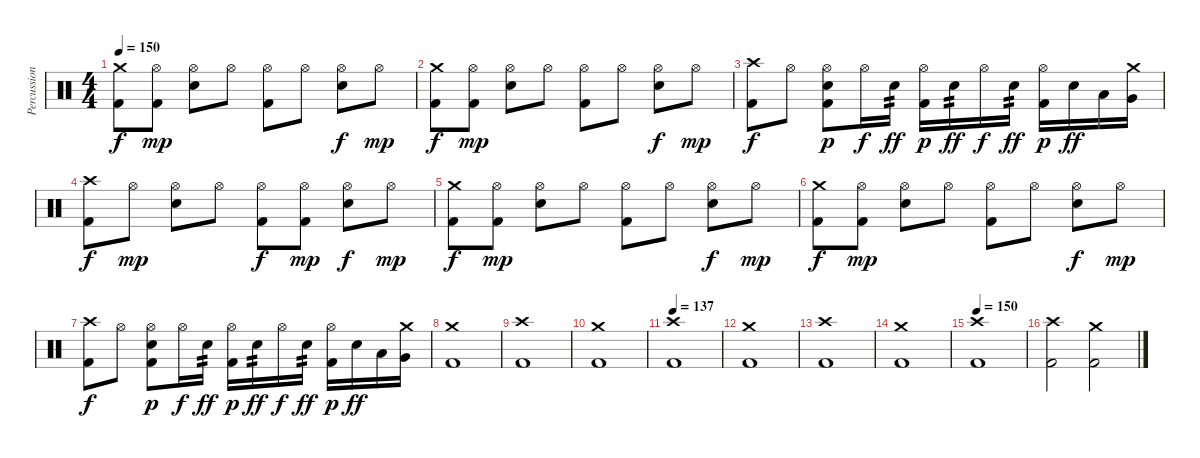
\track ("Percussion" "Percussion") {instrument percussion}
\staff {score}
\articulation defaults
\ts (4 4)
\tempo 150
\clef neutral
\ks c
("Crash medium (hit)" "Kick (hit) 2").8{dy f} ("Hi-Hat (open)" "Kick (hit) 2").8{dy mp} ("Snare (hit) 2" "Hi-Hat (open)").8 "Hi-Hat (open)".8 ("Hi-Hat (open)" "Kick (hit) 2").8 "Hi-Hat (open)".8 ("Hi-Hat (open)" "Electric Snare (hit)").8{dy f} "Hi-Hat (open)".8{dy mp} |
("Crash medium (hit)" "Kick (hit) 2").8{dy f} ("Hi-Hat (open)" "Kick (hit) 2").8{dy mp} ("Snare (hit) 2" "Hi-Hat (open)").8 "Hi-Hat (open)".8 ("Hi-Hat (open)" "Kick (hit) 2").8 "Hi-Hat (open)".8 ("Hi-Hat (open)" "Electric Snare (hit)").8{dy f} "Hi-Hat (open)".8{dy mp} |
("Crash high (hit)" "Kick (hit) 2").8{dy f} "Hi-Hat (open)".8 ("Hi-Hat (open)" "Electric Snare (hit)" "Kick (hit) 2").8{dy p} "Hi-Hat (open)".16{dy f} "Electric Snare (hit)".16{tp 2 dy ff} ("Hi-Hat (open)" "Kick (hit) 2").16{dy p} "Electric Snare (hit)".16{tp 2 dy ff} "Hi-Hat (open)".16{dy f} "Electric Snare (hit)".16{tp 2 dy ff} ("Hi-Hat (open)" "Kick (hit) 2").16{dy p} "Electric Snare (hit)".16{dy ff} "Low Tom (hit)".16 ("Crash medium (hit)" "Very Low Tom (hit)").16 |
("Crash high (hit)" "Kick (hit) 2").8{dy f} "Hi-Hat (open)".8{dy mp} ("Snare (hit) 2" "Hi-Hat (open)").8 "Hi-Hat (open)".8 ("Hi-Hat (open)" "Kick (hit) 2").8{dy f} ("Hi-Hat (open)" "Kick (hit) 2").8{dy mp} ("Hi-Hat (open)" "Electric Snare (hit)").8{dy f} "Hi-Hat (open)".8{dy mp} |
("Crash medium (hit)" "Kick (hit) 2").8{dy f} ("Hi-Hat (open)" "Kick (hit) 2").8{dy mp} ("Snare (hit) 2" "Hi-Hat (open)").8 "Hi-Hat (open)".8 ("Hi-Hat (open)" "Kick (hit) 2").8 "Hi-Hat (open)".8 ("Hi-Hat (open)" "Electric Snare (hit)").8{dy f} "Hi-Hat (open)".8{dy mp} |
("Crash medium (hit)" "Kick (hit) 2").8{dy f} ("Hi-Hat (open)" "Kick (hit) 2").8{dy mp} ("Snare (hit) 2" "Hi-Hat (open)").8 "Hi-Hat (open)".8 ("Hi-Hat (open)" "Kick (hit) 2").8 "Hi-Hat (open)".8 ("Hi-Hat (open)" "Electric Snare (hit)").8{dy f} "Hi-Hat (open)".8{dy mp} |
("Crash high (hit)" "Kick (hit) 2").8{dy f} "Hi-Hat (open)".8 ("Hi-Hat (open)" "Electric Snare (hit)" "Kick (hit) 2").8{dy p} "Hi-Hat (open)".16{dy f} "Electric Snare (hit)".16{tp 2 dy ff} ("Hi-Hat (open)" "Kick (hit) 2").16{dy p} "Electric Snare (hit)".16{tp 2 dy ff} "Hi-Hat (open)".16{dy f} "Electric Snare (hit)".16{tp 2 dy ff} ("Hi-Hat (open)" "Kick (hit) 2").16{dy p} "Electric Snare (hit)".16{dy ff} "Low Tom (hit)".16 ("Crash medium (hit)" "Very Low Tom (hit)").16 |
("Crash medium (hit)" "Kick (hit) 2").1 |
("Crash high (hit)" "Kick (hit) 2").1 |
("Crash medium (hit)" "Kick (hit) 2").1 |
\tempo 137
("Crash high (hit)" "Kick (hit) 2").1 |
("Crash medium (hit)" "Kick (hit) 2").1 |
("Crash high (hit)" "Kick (hit) 2").1 |
("Crash medium (hit)" "Kick (hit) 2").1 |
\tempo 150
("Crash high (hit)" "Kick (hit) 2").1 |
("Crash high (hit)" "Kick (hit) 2").2 ("Crash medium (hit)" "Kick (hit) 2").2
